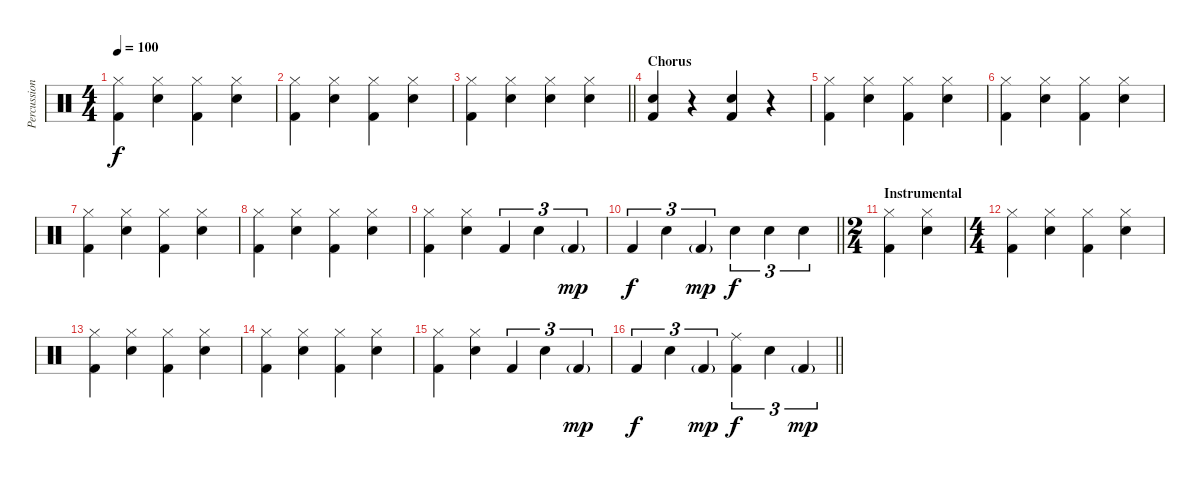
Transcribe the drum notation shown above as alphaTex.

\track ("Percussion" "Percussion") {instrument percussion}
\staff {score}
\articulation defaults
\ts (4 4)
\tempo 100
\clef neutral
\ks c
("Hi-Hat (closed)" "Kick (hit) 2").4{dy f} ("Hi-Hat (closed)" "Snare (hit) 2").4 ("Hi-Hat (closed)" "Kick (hit) 2").4 ("Hi-Hat (closed)" "Snare (hit) 2").4 |
("Hi-Hat (closed)" "Kick (hit) 2").4 ("Hi-Hat (closed)" "Snare (hit) 2").4 ("Hi-Hat (closed)" "Kick (hit) 2").4 ("Hi-Hat (closed)" "Snare (hit) 2").4 |
\barLineRight lightlight
("Hi-Hat (closed)" "Kick (hit) 2").4 ("Hi-Hat (closed)" "Snare (hit) 2").4 ("Hi-Hat (closed)" "Snare (hit) 2").4 ("Hi-Hat (closed)" "Snare (hit) 2").4 |
\section ("" "Chorus")
("Snare (hit) 2" "Kick (hit) 2").4 r.4 ("Snare (hit) 2" "Kick (hit) 2").4 r.4 |
("Hi-Hat (closed)" "Kick (hit) 2").4 ("Hi-Hat (closed)" "Snare (hit) 2").4 ("Hi-Hat (closed)" "Kick (hit) 2").4 ("Hi-Hat (closed)" "Snare (hit) 2").4 |
("Hi-Hat (closed)" "Kick (hit) 2").4 ("Hi-Hat (closed)" "Snare (hit) 2").4 ("Hi-Hat (closed)" "Kick (hit) 2").4 ("Hi-Hat (closed)" "Snare (hit) 2").4 |
("Hi-Hat (closed)" "Kick (hit) 2").4 ("Hi-Hat (closed)" "Snare (hit) 2").4 ("Hi-Hat (closed)" "Kick (hit) 2").4 ("Hi-Hat (closed)" "Snare (hit) 2").4 |
("Hi-Hat (closed)" "Kick (hit) 2").4 ("Hi-Hat (closed)" "Snare (hit) 2").4 ("Hi-Hat (closed)" "Kick (hit) 2").4 ("Hi-Hat (closed)" "Snare (hit) 2").4 |
("Hi-Hat (closed)" "Kick (hit) 2").4 ("Hi-Hat (closed)" "Snare (hit) 2").4 "Kick (hit) 2".4{tu (3 2)} "Snare (hit) 2".4{tu (3 2)} "Kick (hit) 2"{g}.4{tu (3 2) dy mp} |
\barLineRight lightlight "Kick (hit) 2".4{tu (3 2) dy f} "Snare (hit) 2".4{tu (3 2)} "Kick (hit) 2"{g}.4{tu (3 2) dy mp} "Snare (hit) 2".4{tu (3 2) dy f} "Snare (hit) 2".4{tu (3 2)} "Snare (hit) 2".4{tu (3 2)}
|
\ts (2 4)
\section ("" "Instrumental")
("Hi-Hat (closed)" "Kick (hit) 2").4 ("Hi-Hat (closed)" "Snare (hit) 2").4 |
\ts (4 4)
("Hi-Hat (closed)" "Kick (hit) 2").4 ("Hi-Hat (closed)" "Snare (hit) 2").4 ("Hi-Hat (closed)" "Kick (hit) 2").4 ("Hi-Hat (closed)" "Snare (hit) 2").4 |
("Hi-Hat (closed)" "Kick (hit) 2").4 ("Hi-Hat (closed)" "Snare (hit) 2").4 ("Hi-Hat (closed)" "Kick (hit) 2").4 ("Hi-Hat (closed)" "Snare (hit) 2").4 |
("Hi-Hat (closed)" "Kick (hit) 2").4 ("Hi-Hat (closed)" "Snare (hit) 2").4 ("Hi-Hat (closed)" "Kick (hit) 2").4 ("Hi-Hat (closed)" "Snare (hit) 2").4 |
("Hi-Hat (closed)" "Kick (hit) 2").4 ("Hi-Hat (closed)" "Snare (hit) 2").4 "Kick (hit) 2".4{tu (3 2)} "Snare (hit) 2".4{tu (3 2)} "Kick (hit) 2"{g}.4{tu (3 2) dy mp} |
\barLineRight lightlight "Kick (hit) 2".4{tu (3 2) dy f} "Snare (hit) 2".4{tu (3 2)} "Kick (hit) 2"{g}.4{tu (3 2) dy mp}
("Ride (middle)" "Kick (hit) 2").4{tu (3 2) dy f} "Snare (hit) 2".4{tu (3 2)} "Kick (hit) 2"{g}.4{tu (3 2) dy mp}
